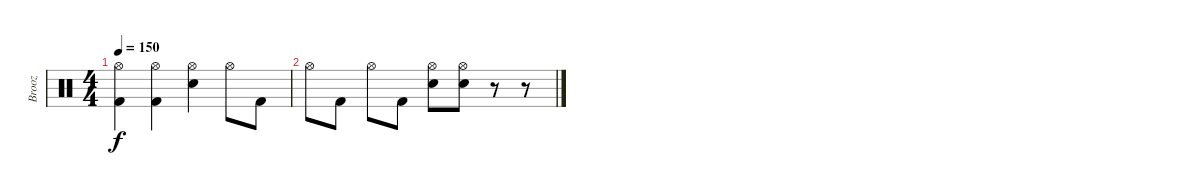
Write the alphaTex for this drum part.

\track ("Brooz" "Brooz") {instrument percussion}
\staff {score}
\articulation defaults
\ts (4 4)
\tempo 150
\clef neutral
\ks c
("Hi-Hat (open)" "Kick (hit) 2").4{dy f} ("Hi-Hat (open)" "Kick (hit) 2").4 ("Hi-Hat (open)" "Electric Snare (hit)").4 "Hi-Hat (open)".8 "Kick (hit) 2".8 |
"Hi-Hat (open)".8 "Kick (hit) 2".8 "Hi-Hat (open)".8 "Kick (hit) 2".8 ("Hi-Hat (open)" "Electric Snare (hit)").8 ("Hi-Hat (open)" "Electric Snare (hit)").8 r.8 r.8
